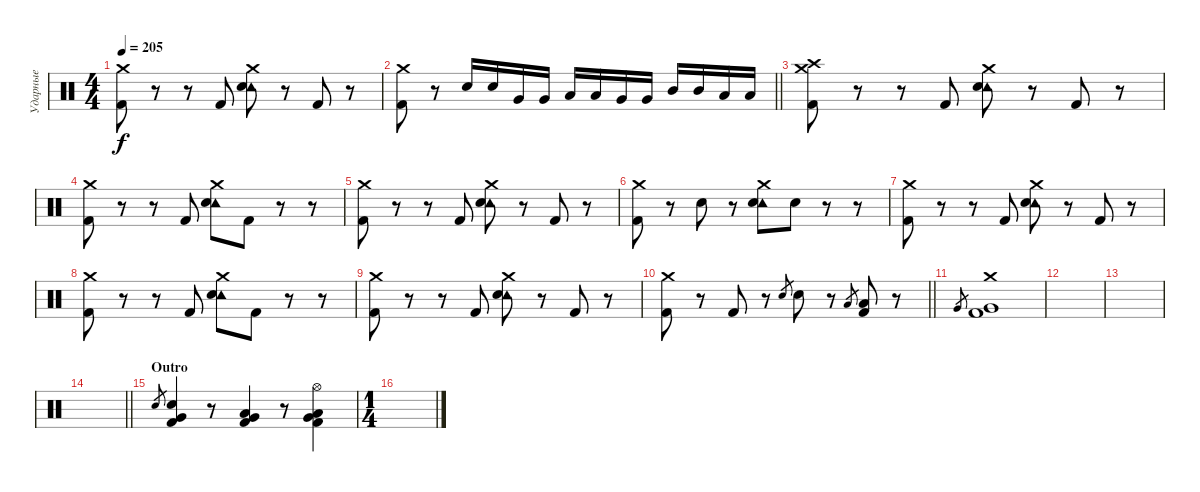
\track ("Ударные" "Ударные") {instrument percussion}
\staff {score}
\articulation defaults
\ts (4 4)
\tempo 205
\clef neutral
\ks c
("Crash medium (hit)" "Kick (hit) 2").8{dy f} r.8 r.8 "Kick (hit) 2".8 ("Crash medium (hit)" "Tambourine (hit)" "Electric Snare (hit)").8 r.8 "Kick (hit) 2".8 r.8 |
\barLineRight lightlight
("Crash medium (hit)" "Kick (hit) 2").8 r.8 "Electric Snare (hit)".16 "Electric Snare (hit)".16 "Very Low Tom (hit)".16 "Very Low Tom (hit)".16 "Low Tom (hit)".16 "Low Tom (hit)".16 "Very Low Tom (hit)".16 "Very Low Tom (hit)".16 "Mid Tom (hit)".16 "Mid Tom (hit)".16 "Low Tom (hit)".16 "Low Tom (hit)".16 |
("Crash high (hit)" "Crash medium (hit)" "Kick (hit) 2").8 r.8 r.8 "Kick (hit) 2".8 ("Crash medium (hit)" "Tambourine (hit)" "Electric Snare (hit)").8 r.8 "Kick (hit) 2".8 r.8 |
("Crash medium (hit)" "Kick (hit) 2").8 r.8 r.8 "Kick (hit) 2".8 ("Crash medium (hit)" "Tambourine (hit)" "Electric Snare (hit)").8 "Kick (hit) 2".8 r.8 r.8 |
("Crash medium (hit)" "Kick (hit) 2").8 r.8 r.8 "Kick (hit) 2".8 ("Crash medium (hit)" "Tambourine (hit)" "Electric Snare (hit)").8 r.8 "Kick (hit) 2".8 r.8 |
("Crash medium (hit)" "Kick (hit) 2").8 r.8 "Electric Snare (hit)".8 r.8 ("Crash medium (hit)" "Tambourine (hit)" "Electric Snare (hit)").8 "Electric Snare (hit)".8 r.8 r.8 |
("Crash medium (hit)" "Kick (hit) 2").8 r.8 r.8 "Kick (hit) 2".8 ("Crash medium (hit)" "Tambourine (hit)" "Electric Snare (hit)").8 r.8 "Kick (hit) 2".8 r.8 |
("Crash medium (hit)" "Kick (hit) 2").8 r.8 r.8 "Kick (hit) 2".8 ("Crash medium (hit)" "Tambourine (hit)" "Electric Snare (hit)").8 "Kick (hit) 2".8 r.8 r.8 |
("Crash medium (hit)" "Kick (hit) 2").8 r.8 r.8 "Kick (hit) 2".8 ("Crash medium (hit)" "Tambourine (hit)" "Electric Snare (hit)").8 r.8 "Kick (hit) 2".8 r.8 |
\barLineRight lightlight
("Crash medium (hit)" "Kick (hit) 2").8 r.8 "Kick (hit) 2".8 r.8 "Electric Snare (hit)".8{gr} "Electric Snare (hit)".8 r.8 "Low Tom (hit)".8{gr} ("Low Tom (hit)" "Kick (hit) 2").8 r.8 |
"Very Low Tom (hit)".8{gr} ("Crash medium (hit)" "Very Low Tom (hit)" "Kick (hit) 2").1 |
|
|
\barLineRight lightlight
|
\section ("" "Outro")
"Electric Snare (hit)".8{gr} ("Electric Snare (hit)" "Very Low Tom (hit)" "Kick (hit) 2").4 r.8 ("Low Floor Tom (hit)" "Very Low Tom (hit)" "Kick (hit) 2").4 r.8 ("Hi-Hat (open)" "Low Floor Tom (hit)" "Very Low Tom (hit)" "Kick (hit) 2").4 |
\ts (1 4)
